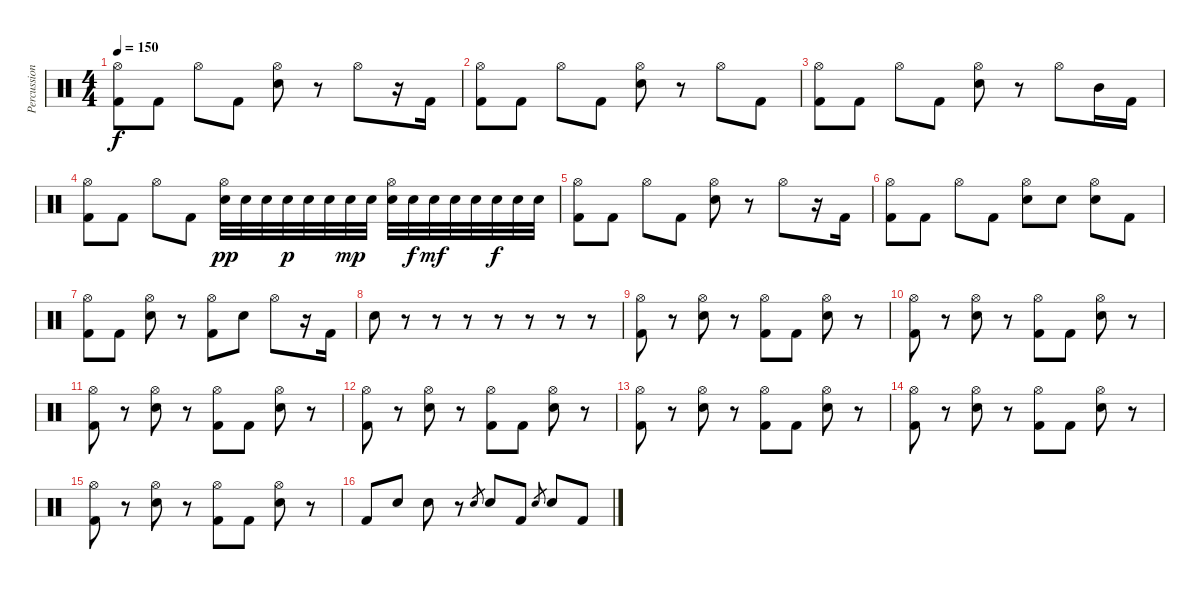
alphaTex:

\track ("Percussion" "Percussion") {instrument percussion}
\staff {score}
\articulation defaults
\ts (4 4)
\tempo 150
\clef neutral
\ks c
("Hi-Hat (open)" "Kick (hit) 2").8{dy f} "Kick (hit) 2".8 "Hi-Hat (open)".8 "Kick (hit) 2".8 ("Hi-Hat (open)" "Electric Snare (hit)").8 r.8 "Hi-Hat (open)".8 r.16 "Kick (hit) 2".16 |
("Hi-Hat (open)" "Kick (hit) 2").8 "Kick (hit) 2".8 "Hi-Hat (open)".8 "Kick (hit) 2".8 ("Hi-Hat (open)" "Electric Snare (hit)").8 r.8 "Hi-Hat (open)".8 "Kick (hit) 2".8 |
("Hi-Hat (open)" "Kick (hit) 2").8 "Kick (hit) 2".8 "Hi-Hat (open)".8 "Kick (hit) 2".8 ("Hi-Hat (open)" "Electric Snare (hit)").8 r.8 "Hi-Hat (open)".8 "Mid Tom (hit)".16 "Kick (hit) 2".16 |
("Hi-Hat (open)" "Kick (hit) 2").8 "Kick (hit) 2".8 "Hi-Hat (open)".8 "Kick (hit) 2".8 ("Hi-Hat (open)" "Electric Snare (hit)").32{dy pp} "Electric Snare (hit)".32 "Electric Snare (hit)".32 "Electric Snare (hit)".32{dy p} "Electric Snare (hit)".32 "Electric Snare (hit)".32 "Electric Snare (hit)".32{dy mp} "Electric Snare (hit)".32 ("Hi-Hat (open)" "Electric Snare (hit)").32 "Electric Snare (hit)".32{dy f} "Electric Snare (hit)".32{dy mf} "Electric Snare (hit)".32 "Electric Snare (hit)".32 "Electric Snare (hit)".32{dy f} "Electric Snare (hit)".32 "Electric Snare (hit)".32 |
("Hi-Hat (open)" "Kick (hit) 2").8 "Kick (hit) 2".8 "Hi-Hat (open)".8 "Kick (hit) 2".8 ("Hi-Hat (open)" "Electric Snare (hit)").8 r.8 "Hi-Hat (open)".8 r.16 "Kick (hit) 2".16 |
("Hi-Hat (open)" "Kick (hit) 2").8 "Kick (hit) 2".8 "Hi-Hat (open)".8 "Kick (hit) 2".8 ("Hi-Hat (open)" "Electric Snare (hit)").8 "Electric Snare (hit)".8 ("Hi-Hat (open)" "Electric Snare (hit)").8 "Kick (hit) 2".8 |
("Hi-Hat (open)" "Kick (hit) 2").8 "Kick (hit) 2".8 ("Hi-Hat (open)" "Electric Snare (hit)").8 r.8 ("Hi-Hat (open)" "Kick (hit) 2").8 "Electric Snare (hit)".8 "Hi-Hat (open)".8 r.16 "Kick (hit) 2".16 |
"Electric Snare (hit)".8 r.8 r.8 r.8 r.8 r.8 r.8 r.8 |
("Hi-Hat (open)" "Kick (hit) 2").8 r.8 ("Hi-Hat (open)" "Electric Snare (hit)").8 r.8 ("Hi-Hat (open)" "Kick (hit) 2").8 "Kick (hit) 2".8 ("Hi-Hat (open)" "Electric Snare (hit)").8 r.8 |
("Hi-Hat (open)" "Kick (hit) 2").8 r.8 ("Hi-Hat (open)" "Electric Snare (hit)").8 r.8 ("Hi-Hat (open)" "Kick (hit) 2").8 "Kick (hit) 2".8 ("Hi-Hat (open)" "Electric Snare (hit)").8 r.8 |
("Hi-Hat (open)" "Kick (hit) 2").8 r.8 ("Hi-Hat (open)" "Electric Snare (hit)").8 r.8 ("Hi-Hat (open)" "Kick (hit) 2").8 "Kick (hit) 2".8 ("Hi-Hat (open)" "Electric Snare (hit)").8 r.8 |
("Hi-Hat (open)" "Kick (hit) 2").8 r.8 ("Hi-Hat (open)" "Electric Snare (hit)").8 r.8 ("Hi-Hat (open)" "Kick (hit) 2").8 "Kick (hit) 2".8 ("Hi-Hat (open)" "Electric Snare (hit)").8 r.8 |
("Hi-Hat (open)" "Kick (hit) 2").8 r.8 ("Hi-Hat (open)" "Electric Snare (hit)").8 r.8 ("Hi-Hat (open)" "Kick (hit) 2").8 "Kick (hit) 2".8 ("Hi-Hat (open)" "Electric Snare (hit)").8 r.8 |
("Hi-Hat (open)" "Kick (hit) 2").8 r.8 ("Hi-Hat (open)" "Electric Snare (hit)").8 r.8 ("Hi-Hat (open)" "Kick (hit) 2").8 "Kick (hit) 2".8 ("Hi-Hat (open)" "Electric Snare (hit)").8 r.8 |
("Hi-Hat (open)" "Kick (hit) 2").8 r.8 ("Hi-Hat (open)" "Electric Snare (hit)").8 r.8 ("Hi-Hat (open)" "Kick (hit) 2").8 "Kick (hit) 2".8 ("Hi-Hat (open)" "Electric Snare (hit)").8 r.8 |
"Kick (hit) 2".8 "Electric Snare (hit)".8 "Electric Snare (hit)".8 r.8 "Electric Snare (hit)".8{gr} "Electric Snare (hit)".8 "Kick (hit) 2".8 "Electric Snare (hit)".8{gr} "Electric Snare (hit)".8 "Kick (hit) 2".8
